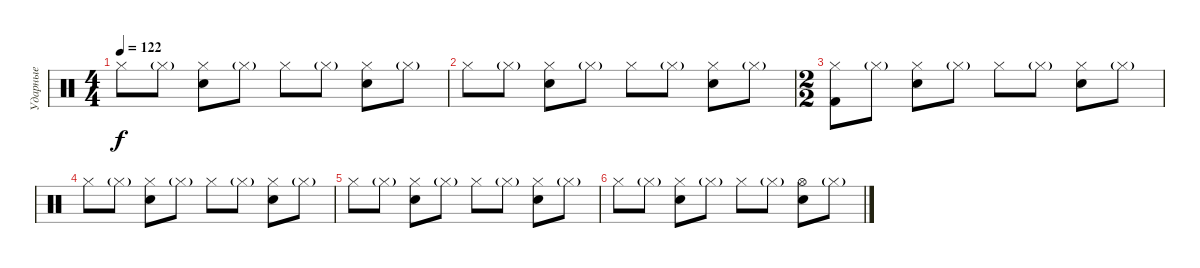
\track ("Ударные" "Ударные") {instrument percussion}
\staff {score}
\articulation defaults
\ts (4 4)
\tempo 122
\clef neutral
\ks c "Hi-Hat (closed)".8{dy f} "Hi-Hat (closed)"{g}.8
("Hi-Hat (closed)" "Electric Snare (hit)").8 "Hi-Hat (closed)"{g}.8 "Hi-Hat (closed)".8 "Hi-Hat (closed)"{g}.8 ("Hi-Hat (closed)" "Electric Snare (hit)").8 "Hi-Hat (closed)"{g}.8 |
"Hi-Hat (closed)".8 "Hi-Hat (closed)"{g}.8 ("Hi-Hat (closed)" "Electric Snare (hit)").8 "Hi-Hat (closed)"{g}.8 "Hi-Hat (closed)".8 "Hi-Hat (closed)"{g}.8 ("Hi-Hat (closed)" "Electric Snare (hit)").8 "Hi-Hat (closed)"{g}.8 |
\ts (2 2)
("Hi-Hat (closed)" "Kick (hit) 2").8 "Hi-Hat (closed)"{g}.8 ("Hi-Hat (closed)" "Electric Snare (hit)").8 "Hi-Hat (closed)"{g}.8 "Hi-Hat (closed)".8 "Hi-Hat (closed)"{g}.8 ("Hi-Hat (closed)" "Electric Snare (hit)").8 "Hi-Hat (closed)"{g}.8 |
"Hi-Hat (closed)".8 "Hi-Hat (closed)"{g}.8 ("Hi-Hat (closed)" "Electric Snare (hit)").8 "Hi-Hat (closed)"{g}.8 "Hi-Hat (closed)".8 "Hi-Hat (closed)"{g}.8 ("Hi-Hat (closed)" "Electric Snare (hit)").8 "Hi-Hat (closed)"{g}.8 |
"Hi-Hat (closed)".8 "Hi-Hat (closed)"{g}.8 ("Hi-Hat (closed)" "Electric Snare (hit)").8 "Hi-Hat (closed)"{g}.8 "Hi-Hat (closed)".8 "Hi-Hat (closed)"{g}.8 ("Hi-Hat (closed)" "Electric Snare (hit)").8 "Hi-Hat (closed)"{g}.8 |
"Hi-Hat (closed)".8 "Hi-Hat (closed)"{g}.8 ("Hi-Hat (closed)" "Electric Snare (hit)").8 "Hi-Hat (closed)"{g}.8 "Hi-Hat (closed)".8 "Hi-Hat (closed)"{g}.8 ("Hi-Hat (open)" "Electric Snare (hit)").8 "Hi-Hat (closed)"{g}.8
